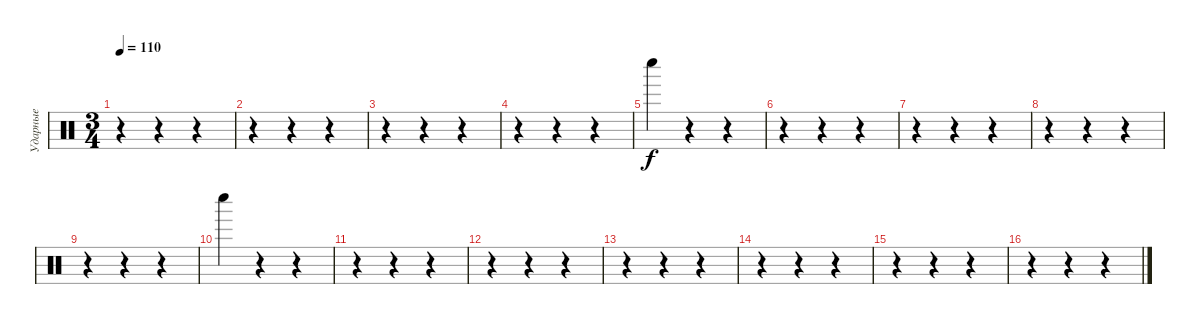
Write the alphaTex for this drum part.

\track ("Ударные" "Ударные") {instrument percussion}
\staff {score}
\articulation defaults
\ts (3 4)
\tempo 110
\clef neutral
\ks c
r.4{dy f} r.4 r.4 |
r.4 r.4 r.4 |
r.4 r.4 r.4 |
r.4 r.4 r.4 |
"Whistle low (hit)".4 r.4 r.4 |
r.4 r.4 r.4 |
r.4 r.4 r.4 |
r.4 r.4 r.4 |
r.4 r.4 r.4 |
"Whistle low (hit)".4 r.4 r.4 |
r.4 r.4 r.4 |
r.4 r.4 r.4 |
r.4 r.4 r.4 |
r.4 r.4 r.4 |
r.4 r.4 r.4 |
r.4 r.4 r.4
